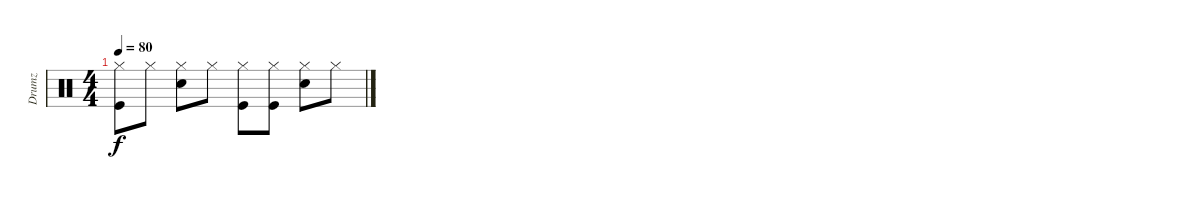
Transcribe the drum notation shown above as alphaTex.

\track ("Drumz" "Drumz") {instrument percussion}
\staff {score}
\articulation defaults
\ts (4 4)
\tempo 80
\clef neutral
\ks c
("Hi-Hat (closed)" "Kick (hit)").8{dy f volume 0} "Hi-Hat (closed)".8 ("Hi-Hat (closed)" "Electric Snare (hit)").8 "Hi-Hat (closed)".8 ("Hi-Hat (closed)" "Kick (hit)").8 ("Hi-Hat (closed)" "Kick (hit)").8 ("Hi-Hat (closed)" "Electric Snare (hit)").8 "Hi-Hat (closed)".8
